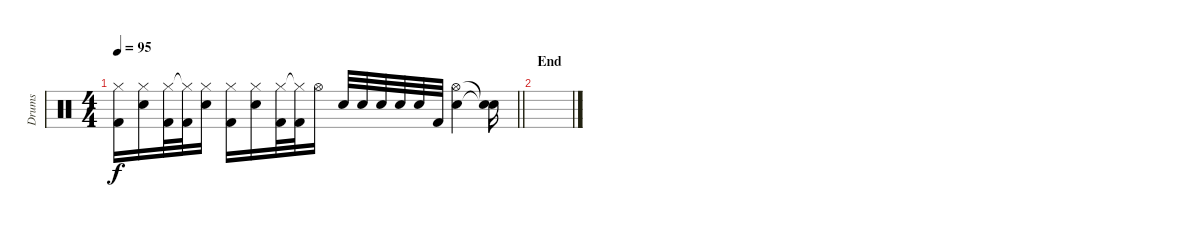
\track ("Drums" "Drums") {instrument percussion}
\staff {score}
\articulation defaults
\ts (4 4)
\tempo 95
\clef neutral
\barLineRight lightlight
\ks c
("Hi-Hat (closed)" "Kick (hit) 2").16{dy f} ("Hi-Hat (closed)" "Snare (hit) 2").16 ("Hi-Hat (closed)" "Kick (hit) 2").32 ("Hi-Hat (closed)"{t} "Kick (hit) 2").32 ("Hi-Hat (closed)" "Snare (hit) 2").16 ("Hi-Hat (closed)" "Kick (hit) 2").16 ("Hi-Hat (closed)" "Snare (hit) 2").16 ("Hi-Hat (closed)" "Kick (hit) 2").32 ("Hi-Hat (closed)"{t} "Kick (hit) 2").32 "Hi-Hat (open)".16 "Snare (hit) 2".32 "Snare (hit) 2".32 "Snare (hit) 2".32 "Snare (hit) 2".32 "Snare (hit) 2".32 "Kick (hit) 2".32 ("Hi-Hat (open)" "Snare (hit) 2").4 ("Snare (hit)"{t} "Snare (hit)"{t}).16 |
\section ("" "End")
